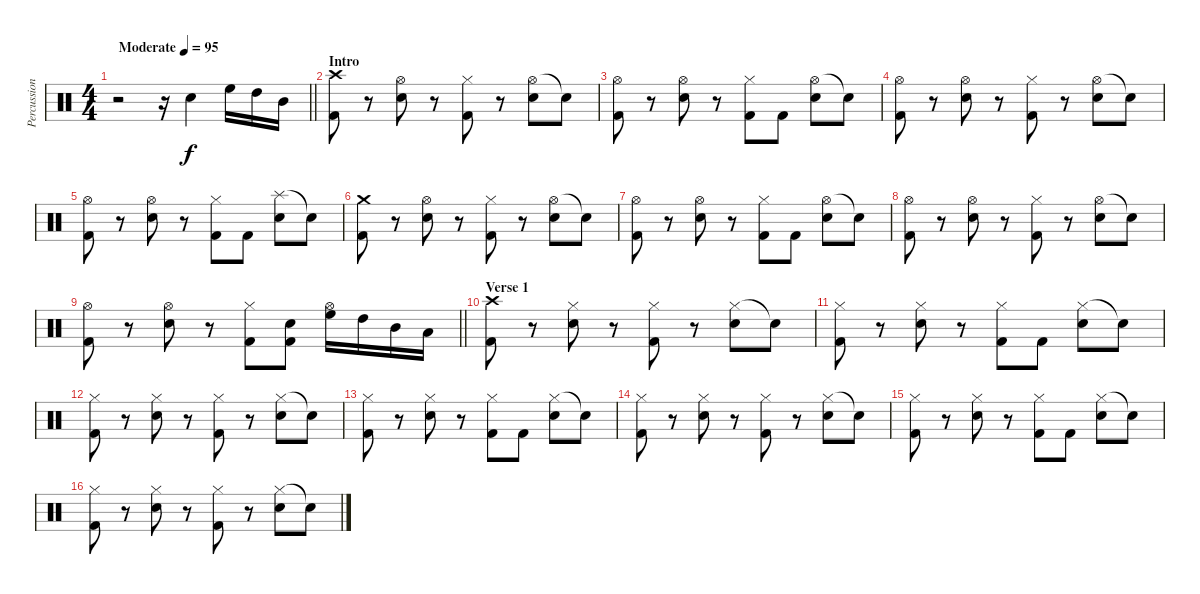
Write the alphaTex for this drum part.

\track ("Percussion" "Percussion") {instrument percussion}
\staff {score}
\articulation defaults
\ts (4 4)
\tempo (95 "Moderate")
\clef neutral
\barLineRight lightlight
\ks c
r.2{dy f} r.16 "Snare (hit) 2".4 "High Floor Tom (hit)".16 "High Tom (hit)".16 "Mid Tom (hit)".16 |
\section ("" "Intro")
("Crash high (hit)" "Kick (hit) 2").8 r.8 ("Hi-Hat (open)" "Snare (hit) 2").8 r.8 ("Hi-Hat (closed)" "Kick (hit) 2").8 r.8 ("Hi-Hat (open)" "Snare (hit) 2").8 "Snare (hit) 2"{t}.8 |
("Hi-Hat (open)" "Kick (hit) 2").8 r.8 ("Hi-Hat (open)" "Snare (hit) 2").8 r.8 ("Hi-Hat (closed)" "Kick (hit) 2").8 "Kick (hit) 2".8 ("Hi-Hat (open)" "Snare (hit) 2").8 "Snare (hit) 2"{t}.8 |
("Hi-Hat (open)" "Kick (hit) 2").8 r.8 ("Hi-Hat (open)" "Snare (hit) 2").8 r.8 ("Hi-Hat (closed)" "Kick (hit) 2").8 r.8 ("Hi-Hat (open)" "Snare (hit) 2").8 "Snare (hit) 2"{t}.8 |
("Hi-Hat (open)" "Kick (hit) 2").8 r.8 ("Hi-Hat (open)" "Snare (hit) 2").8 r.8 ("Hi-Hat (closed)" "Kick (hit) 2").8 "Kick (hit) 2".8 ("Splash (hit)" "Snare (hit) 2").8 "Snare (hit) 2"{t}.8 |
("Crash medium (hit)" "Kick (hit) 2").8 r.8 ("Hi-Hat (open)" "Snare (hit) 2").8 r.8 ("Hi-Hat (closed)" "Kick (hit) 2").8 r.8 ("Hi-Hat (open)" "Snare (hit) 2").8 "Snare (hit) 2"{t}.8 |
("Hi-Hat (open)" "Kick (hit) 2").8 r.8 ("Hi-Hat (open)" "Snare (hit) 2").8 r.8 ("Hi-Hat (closed)" "Kick (hit) 2").8 "Kick (hit) 2".8 ("Hi-Hat (open)" "Snare (hit) 2").8 "Snare (hit) 2"{t}.8 |
("Hi-Hat (open)" "Kick (hit) 2").8 r.8 ("Hi-Hat (open)" "Snare (hit) 2").8 r.8 ("Hi-Hat (closed)" "Kick (hit) 2").8 r.8 ("Hi-Hat (open)" "Snare (hit) 2").8 "Snare (hit) 2"{t}.8 |
\barLineRight lightlight
("Hi-Hat (open)" "Kick (hit) 2").8 r.8 ("Hi-Hat (open)" "Snare (hit) 2").8 r.8 ("Hi-Hat (closed)" "Kick (hit) 2").8 ("Snare (hit) 2" "Kick (hit) 2").8 ("Hi-Hat (open)" "High Floor Tom (hit)").16 "High Tom (hit)".16 "Mid Tom (hit)".16 "Low Tom (hit)".16 |
\section ("" "Verse 1")
("Crash high (hit)" "Kick (hit) 2").8 r.8 ("Hi-Hat (closed)" "Snare (hit) 2").8 r.8 ("Hi-Hat (closed)" "Kick (hit) 2").8 r.8 ("Hi-Hat (closed)" "Snare (hit) 2").8 "Snare (hit) 2"{t}.8 |
("Hi-Hat (closed)" "Kick (hit) 2").8 r.8 ("Hi-Hat (closed)" "Snare (hit) 2").8 r.8 ("Hi-Hat (closed)" "Kick (hit) 2").8 "Kick (hit) 2".8 ("Hi-Hat (closed)" "Snare (hit) 2").8 "Snare (hit) 2"{t}.8 |
("Hi-Hat (closed)" "Kick (hit) 2").8 r.8 ("Hi-Hat (closed)" "Snare (hit) 2").8 r.8 ("Hi-Hat (closed)" "Kick (hit) 2").8 r.8 ("Hi-Hat (closed)" "Snare (hit) 2").8 "Snare (hit) 2"{t}.8 |
("Hi-Hat (closed)" "Kick (hit) 2").8 r.8 ("Hi-Hat (closed)" "Snare (hit) 2").8 r.8 ("Hi-Hat (closed)" "Kick (hit) 2").8 "Kick (hit) 2".8 ("Hi-Hat (closed)" "Snare (hit) 2").8 "Snare (hit) 2"{t}.8 |
("Hi-Hat (closed)" "Kick (hit) 2").8 r.8 ("Hi-Hat (closed)" "Snare (hit) 2").8 r.8 ("Hi-Hat (closed)" "Kick (hit) 2").8 r.8 ("Hi-Hat (closed)" "Snare (hit) 2").8 "Snare (hit) 2"{t}.8 |
("Hi-Hat (closed)" "Kick (hit) 2").8 r.8 ("Hi-Hat (closed)" "Snare (hit) 2").8 r.8 ("Hi-Hat (closed)" "Kick (hit) 2").8 "Kick (hit) 2".8 ("Hi-Hat (closed)" "Snare (hit) 2").8 "Snare (hit) 2"{t}.8 |
("Hi-Hat (closed)" "Kick (hit) 2").8 r.8 ("Hi-Hat (closed)" "Snare (hit) 2").8 r.8 ("Hi-Hat (closed)" "Kick (hit) 2").8 r.8 ("Hi-Hat (closed)" "Snare (hit) 2").8 "Snare (hit) 2"{t}.8
